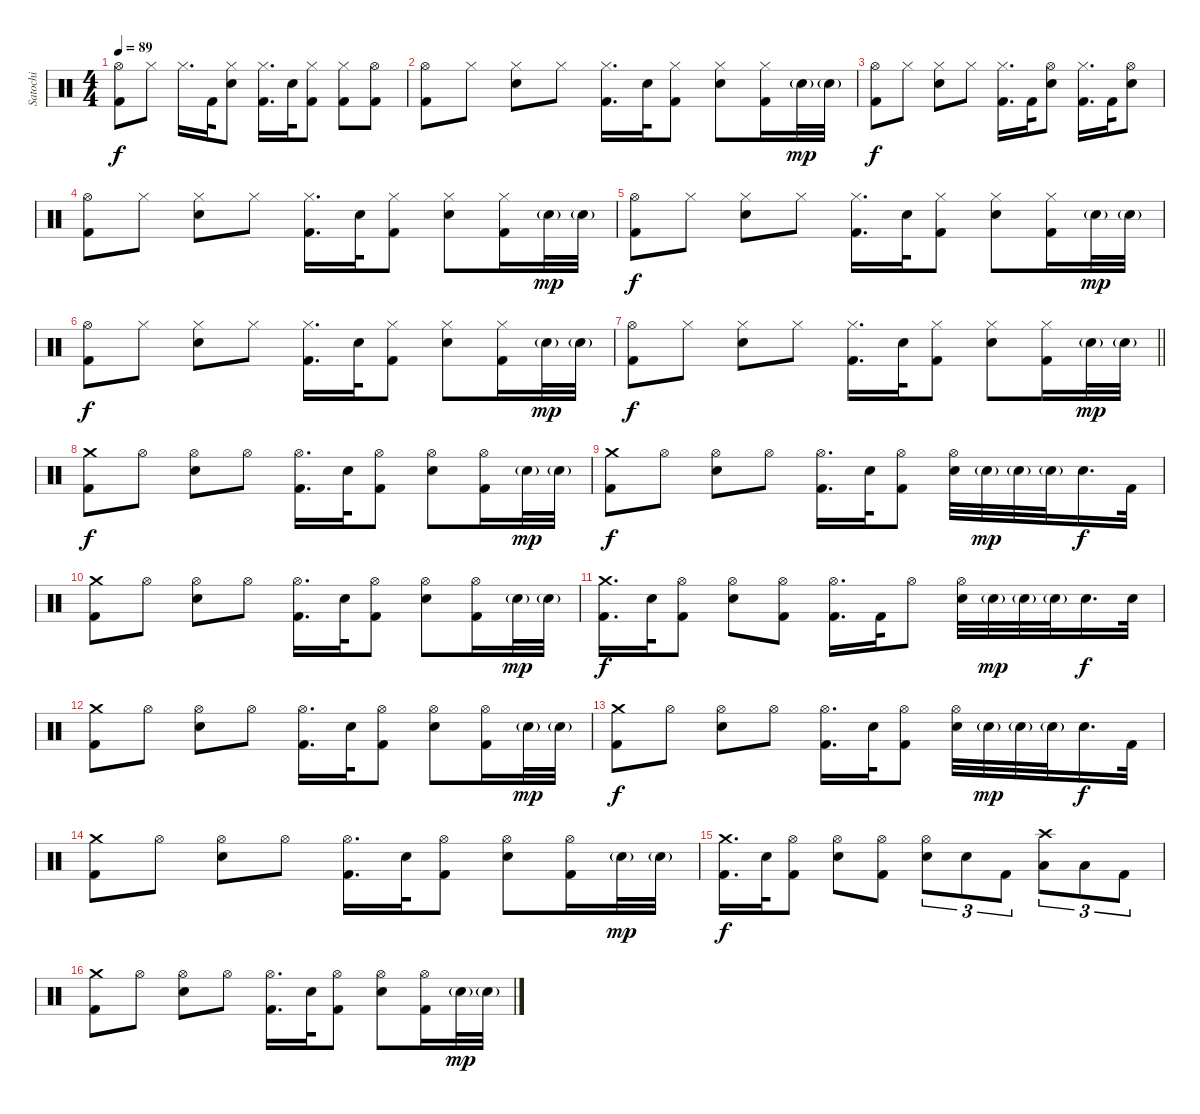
\track ("Satochi" "Satochi") {instrument percussion}
\staff {score}
\articulation defaults
\ts (4 4)
\tempo 89
\clef neutral
\ks c
("Hi-Hat (open)" "Kick (hit) 2").8{dy f} "Hi-Hat (closed)".8 "Hi-Hat (closed)".16{d} "Kick (hit) 2".32 ("Hi-Hat (closed)" "Electric Snare (hit)").8 ("Hi-Hat (closed)" "Kick (hit) 2").16{d} "Electric Snare (hit)".32 ("Hi-Hat (closed)" "Kick (hit) 2").8 ("Hi-Hat (closed)" "Kick (hit) 2").8 ("Hi-Hat (open)" "Kick (hit) 2").8 |
("Hi-Hat (open)" "Kick (hit) 2").8 "Hi-Hat (closed)".8 ("Hi-Hat (closed)" "Electric Snare (hit)").8 "Hi-Hat (closed)".8 ("Hi-Hat (closed)" "Kick (hit) 2").16{d} "Electric Snare (hit)".32 ("Hi-Hat (closed)" "Kick (hit) 2").8 ("Hi-Hat (closed)" "Electric Snare (hit)").8 ("Hi-Hat (closed)" "Kick (hit) 2").16 "Electric Snare (hit)"{g}.32{dy mp} "Electric Snare (hit)"{g}.32 |
("Hi-Hat (open)" "Kick (hit) 2").8{dy f} "Hi-Hat (closed)".8 ("Hi-Hat (closed)" "Electric Snare (hit)").8 "Hi-Hat (closed)".8 ("Hi-Hat (closed)" "Kick (hit) 2").16{d} "Kick (hit) 2".32 ("Hi-Hat (open)" "Electric Snare (hit)").8 ("Hi-Hat (closed)" "Kick (hit) 2").16{d} "Kick (hit) 2".32 ("Hi-Hat (open)" "Electric Snare (hit)").8 |
("Hi-Hat (open)" "Kick (hit) 2").8 "Hi-Hat (closed)".8 ("Hi-Hat (closed)" "Electric Snare (hit)").8 "Hi-Hat (closed)".8 ("Hi-Hat (closed)" "Kick (hit) 2").16{d} "Electric Snare (hit)".32 ("Hi-Hat (closed)" "Kick (hit) 2").8 ("Hi-Hat (closed)" "Electric Snare (hit)").8 ("Hi-Hat (closed)" "Kick (hit) 2").16 "Electric Snare (hit)"{g}.32{dy mp} "Electric Snare (hit)"{g}.32 |
("Hi-Hat (open)" "Kick (hit) 2").8{dy f} "Hi-Hat (closed)".8 ("Hi-Hat (closed)" "Electric Snare (hit)").8 "Hi-Hat (closed)".8 ("Hi-Hat (closed)" "Kick (hit) 2").16{d} "Electric Snare (hit)".32 ("Hi-Hat (closed)" "Kick (hit) 2").8 ("Hi-Hat (closed)" "Electric Snare (hit)").8 ("Hi-Hat (closed)" "Kick (hit) 2").16 "Electric Snare (hit)"{g}.32{dy mp} "Electric Snare (hit)"{g}.32 |
("Hi-Hat (open)" "Kick (hit) 2").8{dy f} "Hi-Hat (closed)".8 ("Hi-Hat (closed)" "Electric Snare (hit)").8 "Hi-Hat (closed)".8 ("Hi-Hat (closed)" "Kick (hit) 2").16{d} "Electric Snare (hit)".32 ("Hi-Hat (closed)" "Kick (hit) 2").8 ("Hi-Hat (closed)" "Electric Snare (hit)").8 ("Hi-Hat (closed)" "Kick (hit) 2").16 "Electric Snare (hit)"{g}.32{dy mp} "Electric Snare (hit)"{g}.32 |
\barLineRight lightlight
("Hi-Hat (open)" "Kick (hit) 2").8{dy f} "Hi-Hat (closed)".8 ("Hi-Hat (closed)" "Electric Snare (hit)").8 "Hi-Hat (closed)".8 ("Hi-Hat (closed)" "Kick (hit) 2").16{d} "Electric Snare (hit)".32 ("Hi-Hat (closed)" "Kick (hit) 2").8 ("Hi-Hat (closed)" "Electric Snare (hit)").8 ("Hi-Hat (closed)" "Kick (hit) 2").16 "Electric Snare (hit)"{g}.32{dy mp} "Electric Snare (hit)"{g}.32 |
("Crash medium (hit)" "Kick (hit) 2").8{dy f} "Hi-Hat (open)".8 ("Hi-Hat (open)" "Electric Snare (hit)").8 "Hi-Hat (open)".8 ("Hi-Hat (open)" "Kick (hit) 2").16{d} "Electric Snare (hit)".32 ("Hi-Hat (open)" "Kick (hit) 2").8 ("Hi-Hat (open)" "Electric Snare (hit)").8 ("Hi-Hat (open)" "Kick (hit) 2").16 "Electric Snare (hit)"{g}.32{dy mp} "Electric Snare (hit)"{g}.32 |
("Crash medium (hit)" "Kick (hit) 2").8{dy f} "Hi-Hat (open)".8 ("Hi-Hat (open)" "Electric Snare (hit)").8 "Hi-Hat (open)".8 ("Hi-Hat (open)" "Kick (hit) 2").16{d} "Electric Snare (hit)".32 ("Hi-Hat (open)" "Kick (hit) 2").8 ("Hi-Hat (open)" "Electric Snare (hit)").32 "Electric Snare (hit)"{g}.32{dy mp} "Electric Snare (hit)"{g}.32 "Electric Snare (hit)"{g}.32 "Electric Snare (hit)".16{d dy f} "Kick (hit) 2".32 |
("Crash medium (hit)" "Kick (hit) 2").8 "Hi-Hat (open)".8 ("Hi-Hat (open)" "Electric Snare (hit)").8 "Hi-Hat (open)".8 ("Hi-Hat (open)" "Kick (hit) 2").16{d} "Electric Snare (hit)".32 ("Hi-Hat (open)" "Kick (hit) 2").8 ("Hi-Hat (open)" "Electric Snare (hit)").8 ("Hi-Hat (open)" "Kick (hit) 2").16 "Electric Snare (hit)"{g}.32{dy mp} "Electric Snare (hit)"{g}.32 |
("Crash medium (hit)" "Kick (hit) 2").16{d dy f} "Electric Snare (hit)".32 ("Hi-Hat (open)" "Kick (hit) 2").8 ("Hi-Hat (open)" "Electric Snare (hit)").8 ("Hi-Hat (open)" "Kick (hit) 2").8 ("Hi-Hat (open)" "Kick (hit) 2").16{d} "Kick (hit) 2".32 "Hi-Hat (open)".8 ("Hi-Hat (open)" "Electric Snare (hit)").32 "Electric Snare (hit)"{g}.32{dy mp} "Electric Snare (hit)"{g}.32 "Electric Snare (hit)"{g}.32 "Electric Snare (hit)".16{d dy f} "Electric Snare (hit)".32 |
("Crash medium (hit)" "Kick (hit) 2").8 "Hi-Hat (open)".8 ("Hi-Hat (open)" "Electric Snare (hit)").8 "Hi-Hat (open)".8 ("Hi-Hat (open)" "Kick (hit) 2").16{d} "Electric Snare (hit)".32 ("Hi-Hat (open)" "Kick (hit) 2").8 ("Hi-Hat (open)" "Electric Snare (hit)").8 ("Hi-Hat (open)" "Kick (hit) 2").16 "Electric Snare (hit)"{g}.32{dy mp} "Electric Snare (hit)"{g}.32 |
("Crash medium (hit)" "Kick (hit) 2").8{dy f} "Hi-Hat (open)".8 ("Hi-Hat (open)" "Electric Snare (hit)").8 "Hi-Hat (open)".8 ("Hi-Hat (open)" "Kick (hit) 2").16{d} "Electric Snare (hit)".32 ("Hi-Hat (open)" "Kick (hit) 2").8 ("Hi-Hat (open)" "Electric Snare (hit)").32 "Electric Snare (hit)"{g}.32{dy mp} "Electric Snare (hit)"{g}.32 "Electric Snare (hit)"{g}.32 "Electric Snare (hit)".16{d dy f} "Kick (hit) 2".32 |
("Crash medium (hit)" "Kick (hit) 2").8 "Hi-Hat (open)".8 ("Hi-Hat (open)" "Electric Snare (hit)").8 "Hi-Hat (open)".8 ("Hi-Hat (open)" "Kick (hit) 2").16{d} "Electric Snare (hit)".32 ("Hi-Hat (open)" "Kick (hit) 2").8 ("Hi-Hat (open)" "Electric Snare (hit)").8 ("Hi-Hat (open)" "Kick (hit) 2").16 "Electric Snare (hit)"{g}.32{dy mp} "Electric Snare (hit)"{g}.32 |
("Crash medium (hit)" "Kick (hit) 2").16{d dy f} "Electric Snare (hit)".32 ("Hi-Hat (open)" "Kick (hit) 2").8 ("Hi-Hat (open)" "Electric Snare (hit)").8 ("Hi-Hat (open)" "Kick (hit) 2").8 ("Hi-Hat (open)" "Electric Snare (hit)").8{tu (3 2)} "Electric Snare (hit)".8{tu (3 2)} "Kick (hit) 2".8{tu (3 2)} ("Crash high (hit)" "Low Tom (hit)").8{tu (3 2)} "Low Tom (hit)".8{tu (3 2)} "Kick (hit) 2".8{tu (3 2)} |
("Crash medium (hit)" "Kick (hit) 2").8 "Hi-Hat (open)".8 ("Hi-Hat (open)" "Electric Snare (hit)").8 "Hi-Hat (open)".8 ("Hi-Hat (open)" "Kick (hit) 2").16{d} "Electric Snare (hit)".32 ("Hi-Hat (open)" "Kick (hit) 2").8 ("Hi-Hat (open)" "Electric Snare (hit)").8 ("Hi-Hat (open)" "Kick (hit) 2").16 "Electric Snare (hit)"{g}.32{dy mp} "Electric Snare (hit)"{g}.32
